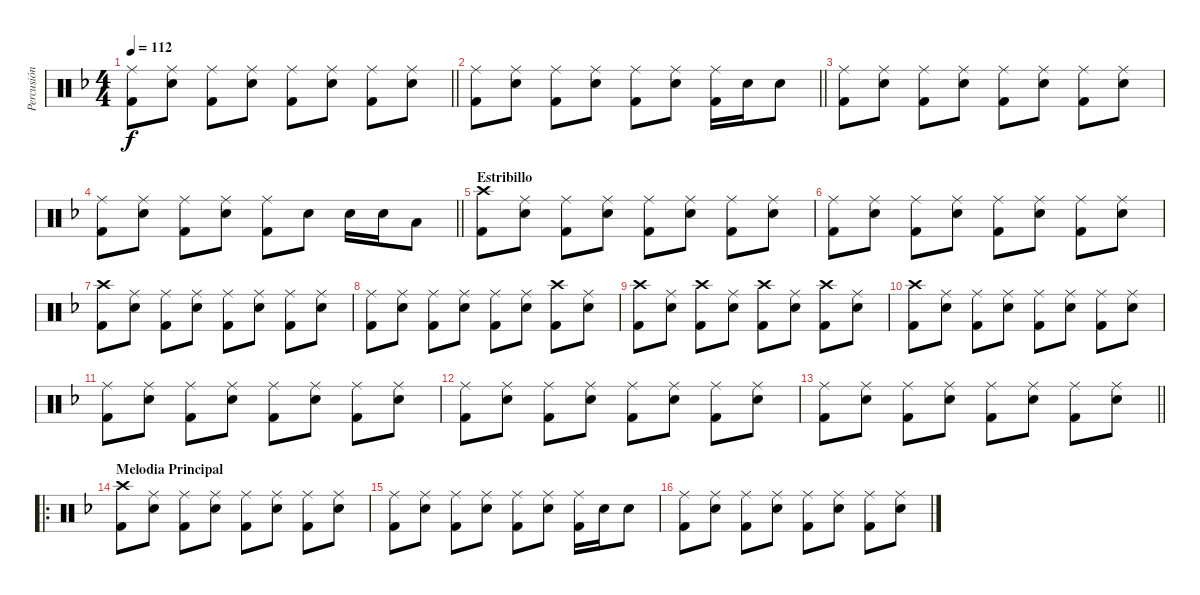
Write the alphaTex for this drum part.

\track ("Percusión" "Percusión") {instrument percussion}
\staff {score}
\articulation defaults
\ts (4 4)
\tempo 112
\clef neutral
\barLineRight lightlight
\ks dminor
("Ride (middle)" "Kick (hit) 2").8{dy f} ("Ride (middle)" "Snare (hit) 2").8 ("Ride (middle)" "Kick (hit) 2").8 ("Ride (middle)" "Snare (hit) 2").8 ("Ride (middle)" "Kick (hit) 2").8 ("Ride (middle)" "Snare (hit) 2").8 ("Ride (middle)" "Kick (hit) 2").8 ("Ride (middle)" "Snare (hit) 2").8 |
\barLineRight lightlight
("Ride (middle)" "Kick (hit) 2").8 ("Ride (middle)" "Snare (hit) 2").8 ("Ride (middle)" "Kick (hit) 2").8 ("Ride (middle)" "Snare (hit) 2").8 ("Ride (middle)" "Kick (hit) 2").8 ("Ride (middle)" "Snare (hit) 2").8 ("Ride (middle)" "Kick (hit) 2").16 "Snare (hit) 2".16 "Snare (hit) 2".8 |
("Ride (middle)" "Kick (hit) 2").8 ("Ride (middle)" "Snare (hit) 2").8 ("Ride (middle)" "Kick (hit) 2").8 ("Ride (middle)" "Snare (hit) 2").8 ("Ride (middle)" "Kick (hit) 2").8 ("Ride (middle)" "Snare (hit) 2").8 ("Ride (middle)" "Kick (hit) 2").8 ("Ride (middle)" "Snare (hit) 2").8 |
\barLineRight lightlight
("Ride (middle)" "Kick (hit) 2").8 ("Ride (middle)" "Snare (hit) 2").8 ("Ride (middle)" "Kick (hit) 2").8 ("Ride (middle)" "Snare (hit) 2").8 ("Ride (middle)" "Kick (hit) 2").8 "Snare (hit) 2".8 "Snare (hit) 2".16 "Snare (hit) 2".16 "Low Tom (hit)".8 |
\section ("" "Estribillo")
("Crash high (hit)" "Kick (hit) 2").8 ("Ride (middle)" "Snare (hit) 2").8 ("Ride (middle)" "Kick (hit) 2").8 ("Ride (middle)" "Snare (hit) 2").8 ("Ride (middle)" "Kick (hit) 2").8 ("Ride (middle)" "Snare (hit) 2").8 ("Ride (middle)" "Kick (hit) 2").8 ("Ride (middle)" "Snare (hit) 2").8 |
("Ride (middle)" "Kick (hit) 2").8 ("Ride (middle)" "Snare (hit) 2").8 ("Ride (middle)" "Kick (hit) 2").8 ("Ride (middle)" "Snare (hit) 2").8 ("Ride (middle)" "Kick (hit) 2").8 ("Ride (middle)" "Snare (hit) 2").8 ("Ride (middle)" "Kick (hit) 2").8 ("Ride (middle)" "Snare (hit) 2").8 |
("Crash high (hit)" "Kick (hit) 2").8 ("Ride (middle)" "Snare (hit) 2").8 ("Ride (middle)" "Kick (hit) 2").8 ("Ride (middle)" "Snare (hit) 2").8 ("Ride (middle)" "Kick (hit) 2").8 ("Ride (middle)" "Snare (hit) 2").8 ("Ride (middle)" "Kick (hit) 2").8 ("Ride (middle)" "Snare (hit) 2").8 |
("Ride (middle)" "Kick (hit) 2").8 ("Ride (middle)" "Snare (hit) 2").8 ("Ride (middle)" "Kick (hit) 2").8 ("Ride (middle)" "Snare (hit) 2").8 ("Ride (middle)" "Kick (hit) 2").8 ("Ride (middle)" "Snare (hit) 2").8 ("Crash high (hit)" "Kick (hit) 2").8 ("Ride (middle)" "Snare (hit) 2").8 |
("Crash high (hit)" "Kick (hit) 2").8 ("Ride (middle)" "Snare (hit) 2").8 ("Crash high (hit)" "Kick (hit) 2").8 ("Ride (middle)" "Snare (hit) 2").8 ("Crash high (hit)" "Kick (hit) 2").8 ("Ride (middle)" "Snare (hit) 2").8 ("Crash high (hit)" "Kick (hit) 2").8 ("Ride (middle)" "Snare (hit) 2").8 |
("Crash high (hit)" "Kick (hit) 2").8 ("Ride (middle)" "Snare (hit) 2").8 ("Ride (middle)" "Kick (hit) 2").8 ("Ride (middle)" "Snare (hit) 2").8 ("Ride (middle)" "Kick (hit) 2").8 ("Ride (middle)" "Snare (hit) 2").8 ("Ride (middle)" "Kick (hit) 2").8 ("Ride (middle)" "Snare (hit) 2").8 |
("Ride (middle)" "Kick (hit) 2").8 ("Ride (middle)" "Snare (hit) 2").8 ("Ride (middle)" "Kick (hit) 2").8 ("Ride (middle)" "Snare (hit) 2").8 ("Ride (middle)" "Kick (hit) 2").8 ("Ride (middle)" "Snare (hit) 2").8 ("Ride (middle)" "Kick (hit) 2").8 ("Ride (middle)" "Snare (hit) 2").8 |
("Ride (middle)" "Kick (hit) 2").8 ("Ride (middle)" "Snare (hit) 2").8 ("Ride (middle)" "Kick (hit) 2").8 ("Ride (middle)" "Snare (hit) 2").8 ("Ride (middle)" "Kick (hit) 2").8 ("Ride (middle)" "Snare (hit) 2").8 ("Ride (middle)" "Kick (hit) 2").8 ("Ride (middle)" "Snare (hit) 2").8 |
\barLineRight lightlight
("Ride (middle)" "Kick (hit) 2").8 ("Ride (middle)" "Snare (hit) 2").8 ("Ride (middle)" "Kick (hit) 2").8 ("Ride (middle)" "Snare (hit) 2").8 ("Ride (middle)" "Kick (hit) 2").8 ("Ride (middle)" "Snare (hit) 2").8 ("Ride (middle)" "Kick (hit) 2").8 ("Ride (middle)" "Snare (hit) 2").8 |
\ro
\section ("" "Melodia Principal")
("Crash high (hit)" "Kick (hit) 2").8 ("Ride (middle)" "Snare (hit) 2").8 ("Ride (middle)" "Kick (hit) 2").8 ("Ride (middle)" "Snare (hit) 2").8 ("Ride (middle)" "Kick (hit) 2").8 ("Ride (middle)" "Snare (hit) 2").8 ("Ride (middle)" "Kick (hit) 2").8 ("Ride (middle)" "Snare (hit) 2").8 |
("Ride (middle)" "Kick (hit) 2").8 ("Ride (middle)" "Snare (hit) 2").8 ("Ride (middle)" "Kick (hit) 2").8 ("Ride (middle)" "Snare (hit) 2").8 ("Ride (middle)" "Kick (hit) 2").8 ("Ride (middle)" "Snare (hit) 2").8 ("Ride (middle)" "Kick (hit) 2").16 "Snare (hit) 2".16 "Snare (hit) 2".8 |
("Ride (middle)" "Kick (hit) 2").8 ("Ride (middle)" "Snare (hit) 2").8 ("Ride (middle)" "Kick (hit) 2").8 ("Ride (middle)" "Snare (hit) 2").8 ("Ride (middle)" "Kick (hit) 2").8 ("Ride (middle)" "Snare (hit) 2").8 ("Ride (middle)" "Kick (hit) 2").8 ("Ride (middle)" "Snare (hit) 2").8
